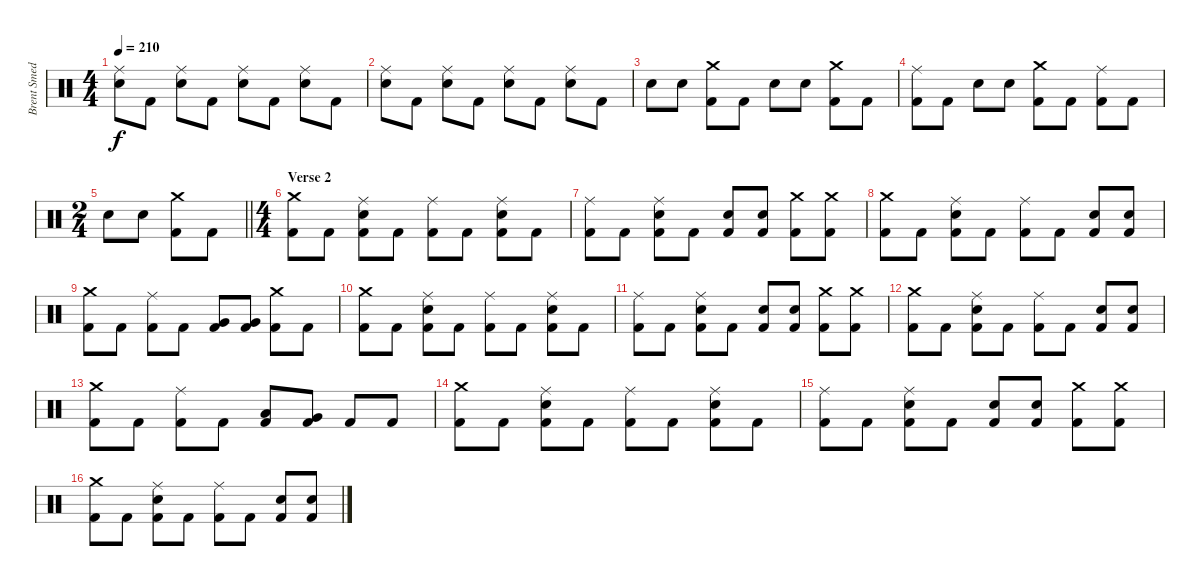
\track ("Brent Smedley" "Brent Smed") {instrument percussion}
\staff {score}
\articulation defaults
\ts (4 4)
\tempo 210
\clef neutral
\ks c
("Ride (middle)" "Electric Snare (hit)").8{dy f} "Kick (hit) 2".8 ("Ride (middle)" "Electric Snare (hit)").8 "Kick (hit) 2".8 ("Ride (middle)" "Electric Snare (hit)").8 "Kick (hit) 2".8 ("Ride (middle)" "Electric Snare (hit)").8 "Kick (hit) 2".8 |
("Ride (middle)" "Electric Snare (hit)").8 "Kick (hit) 2".8 ("Ride (middle)" "Electric Snare (hit)").8 "Kick (hit) 2".8 ("Ride (middle)" "Electric Snare (hit)").8 "Kick (hit) 2".8 ("Ride (middle)" "Electric Snare (hit)").8 "Kick (hit) 2".8 |
"Electric Snare (hit)".8 "Electric Snare (hit)".8 ("Crash medium (hit)" "Kick (hit) 2").8 "Kick (hit) 2".8 "Electric Snare (hit)".8 "Electric Snare (hit)".8 ("Crash medium (hit)" "Kick (hit) 2").8 "Kick (hit) 2".8 |
("Ride (middle)" "Kick (hit) 2").8 "Kick (hit) 2".8 "Electric Snare (hit)".8 "Electric Snare (hit)".8 ("Crash medium (hit)" "Kick (hit) 2").8 "Kick (hit) 2".8 ("Ride (middle)" "Kick (hit) 2").8 "Kick (hit) 2".8 |
\ts (2 4)
\barLineRight lightlight "Electric Snare (hit)".8 "Electric Snare (hit)".8
("Crash medium (hit)" "Kick (hit) 2").8 "Kick (hit) 2".8 |
\ts (4 4)
\section ("" "Verse 2")
("Crash medium (hit)" "Kick (hit) 2").8 "Kick (hit) 2".8 ("Ride (middle)" "Electric Snare (hit)" "Kick (hit) 2").8 "Kick (hit) 2".8 ("Ride (middle)" "Kick (hit) 2").8 "Kick (hit) 2".8 ("Ride (middle)" "Electric Snare (hit)" "Kick (hit) 2").8 "Kick (hit) 2".8 |
("Ride (middle)" "Kick (hit) 2").8 "Kick (hit) 2".8 ("Ride (middle)" "Electric Snare (hit)" "Kick (hit) 2").8 "Kick (hit) 2".8 ("Electric Snare (hit)" "Kick (hit) 2").8 ("Electric Snare (hit)" "Kick (hit) 2").8 ("Crash medium (hit)" "Kick (hit) 2").8 ("Crash medium (hit)" "Kick (hit) 2").8 |
("Crash medium (hit)" "Kick (hit) 2").8 "Kick (hit) 2".8 ("Ride (middle)" "Electric Snare (hit)" "Kick (hit) 2").8 "Kick (hit) 2".8 ("Ride (middle)" "Kick (hit) 2").8 "Kick (hit) 2".8 ("Electric Snare (hit)" "Kick (hit) 2").8 ("Electric Snare (hit)" "Kick (hit) 2").8 |
("Crash medium (hit)" "Kick (hit) 2").8 "Kick (hit) 2".8 ("Ride (middle)" "Kick (hit) 2").8 "Kick (hit) 2".8 ("Very Low Tom (hit)" "Kick (hit) 2").8 ("Very Low Tom (hit)" "Kick (hit) 2").8 ("Crash medium (hit)" "Kick (hit) 2").8 "Kick (hit) 2".8 |
("Crash medium (hit)" "Kick (hit) 2").8 "Kick (hit) 2".8 ("Ride (middle)" "Electric Snare (hit)" "Kick (hit) 2").8 "Kick (hit) 2".8 ("Ride (middle)" "Kick (hit) 2").8 "Kick (hit) 2".8 ("Ride (middle)" "Electric Snare (hit)" "Kick (hit) 2").8 "Kick (hit) 2".8 |
("Ride (middle)" "Kick (hit) 2").8 "Kick (hit) 2".8 ("Ride (middle)" "Electric Snare (hit)" "Kick (hit) 2").8 "Kick (hit) 2".8 ("Electric Snare (hit)" "Kick (hit) 2").8 ("Electric Snare (hit)" "Kick (hit) 2").8 ("Crash medium (hit)" "Kick (hit) 2").8 ("Crash medium (hit)" "Kick (hit) 2").8 |
("Crash medium (hit)" "Kick (hit) 2").8 "Kick (hit) 2".8 ("Ride (middle)" "Electric Snare (hit)" "Kick (hit) 2").8 "Kick (hit) 2".8 ("Ride (middle)" "Kick (hit) 2").8 "Kick (hit) 2".8 ("Electric Snare (hit)" "Kick (hit) 2").8 ("Electric Snare (hit)" "Kick (hit) 2").8 |
("Crash medium (hit)" "Kick (hit) 2").8 "Kick (hit) 2".8 ("Ride (middle)" "Kick (hit) 2").8 "Kick (hit) 2".8 ("Low Tom (hit)" "Kick (hit) 2").8 ("Very Low Tom (hit)" "Kick (hit) 2").8 "Kick (hit) 2".8 "Kick (hit) 2".8 |
("Crash medium (hit)" "Kick (hit) 2").8 "Kick (hit) 2".8 ("Ride (middle)" "Electric Snare (hit)" "Kick (hit) 2").8 "Kick (hit) 2".8 ("Ride (middle)" "Kick (hit) 2").8 "Kick (hit) 2".8 ("Ride (middle)" "Electric Snare (hit)" "Kick (hit) 2").8 "Kick (hit) 2".8 |
("Ride (middle)" "Kick (hit) 2").8 "Kick (hit) 2".8 ("Ride (middle)" "Electric Snare (hit)" "Kick (hit) 2").8 "Kick (hit) 2".8 ("Electric Snare (hit)" "Kick (hit) 2").8 ("Electric Snare (hit)" "Kick (hit) 2").8 ("Crash medium (hit)" "Kick (hit) 2").8 ("Crash medium (hit)" "Kick (hit) 2").8 |
("Crash medium (hit)" "Kick (hit) 2").8 "Kick (hit) 2".8 ("Ride (middle)" "Electric Snare (hit)" "Kick (hit) 2").8 "Kick (hit) 2".8 ("Ride (middle)" "Kick (hit) 2").8 "Kick (hit) 2".8 ("Electric Snare (hit)" "Kick (hit) 2").8 ("Electric Snare (hit)" "Kick (hit) 2").8
